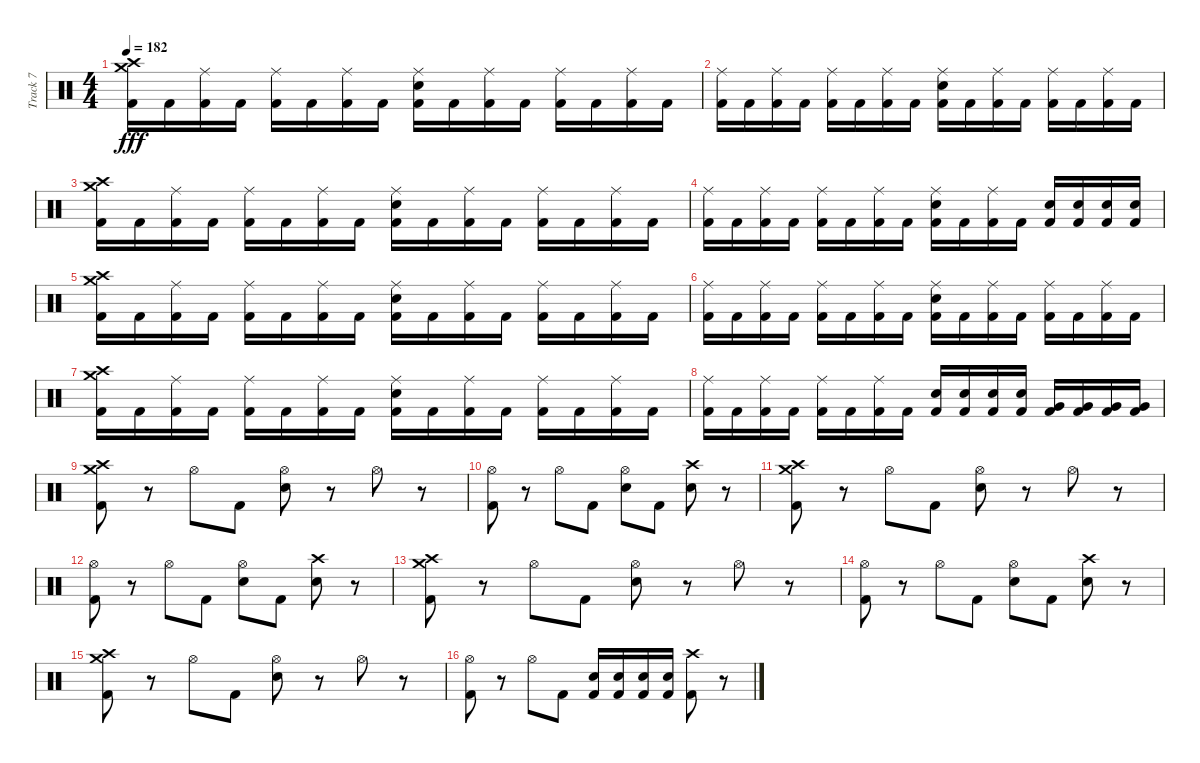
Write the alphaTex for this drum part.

\track ("Track 7" "Track 7") {instrument percussion}
\staff {score}
\articulation defaults
\ts (4 4)
\tempo 182
\clef neutral
\ks c
("Kick (hit) 2" "Crash medium (hit)" "Crash high (hit)").16{dy fff} "Kick (hit) 2".16 ("Kick (hit) 2" "Ride (middle)").16 "Kick (hit) 2".16 ("Kick (hit) 2" "Ride (middle)").16 "Kick (hit) 2".16 ("Kick (hit) 2" "Ride (middle)").16 "Kick (hit) 2".16 ("Kick (hit) 2" "Electric Snare (hit)" "Ride (middle)").16 "Kick (hit) 2".16 ("Kick (hit) 2" "Ride (middle)").16 "Kick (hit) 2".16 ("Kick (hit) 2" "Ride (middle)").16 "Kick (hit) 2".16 ("Kick (hit) 2" "Ride (middle)").16 "Kick (hit) 2".16 |
("Kick (hit) 2" "Ride (middle)").16 "Kick (hit) 2".16 ("Kick (hit) 2" "Ride (middle)").16 "Kick (hit) 2".16 ("Kick (hit) 2" "Ride (middle)").16 "Kick (hit) 2".16 ("Kick (hit) 2" "Ride (middle)").16 "Kick (hit) 2".16 ("Kick (hit) 2" "Ride (middle)" "Electric Snare (hit)").16 "Kick (hit) 2".16 ("Kick (hit) 2" "Ride (middle)").16 "Kick (hit) 2".16 ("Kick (hit) 2" "Ride (middle)").16 "Kick (hit) 2".16 ("Kick (hit) 2" "Ride (middle)").16 "Kick (hit) 2".16 |
("Kick (hit) 2" "Crash medium (hit)" "Crash high (hit)").16 "Kick (hit) 2".16 ("Kick (hit) 2" "Ride (middle)").16 "Kick (hit) 2".16 ("Kick (hit) 2" "Ride (middle)").16 "Kick (hit) 2".16 ("Kick (hit) 2" "Ride (middle)").16 "Kick (hit) 2".16 ("Kick (hit) 2" "Electric Snare (hit)" "Ride (middle)").16 "Kick (hit) 2".16 ("Kick (hit) 2" "Ride (middle)").16 "Kick (hit) 2".16 ("Kick (hit) 2" "Ride (middle)").16 "Kick (hit) 2".16 ("Kick (hit) 2" "Ride (middle)").16 "Kick (hit) 2".16 |
("Kick (hit) 2" "Ride (middle)").16 "Kick (hit) 2".16 ("Kick (hit) 2" "Ride (middle)").16 "Kick (hit) 2".16 ("Kick (hit) 2" "Ride (middle)").16 "Kick (hit) 2".16 ("Kick (hit) 2" "Ride (middle)").16 "Kick (hit) 2".16 ("Kick (hit) 2" "Ride (middle)" "Electric Snare (hit)").16 "Kick (hit) 2".16 ("Kick (hit) 2" "Ride (middle)").16 "Kick (hit) 2".16 ("Kick (hit) 2" "Electric Snare (hit)").16 ("Kick (hit) 2" "Electric Snare (hit)").16 ("Kick (hit) 2" "Electric Snare (hit)").16 ("Kick (hit) 2" "Electric Snare (hit)").16 |
("Kick (hit) 2" "Crash medium (hit)" "Crash high (hit)").16 "Kick (hit) 2".16 ("Kick (hit) 2" "Ride (middle)").16 "Kick (hit) 2".16 ("Kick (hit) 2" "Ride (middle)").16 "Kick (hit) 2".16 ("Kick (hit) 2" "Ride (middle)").16 "Kick (hit) 2".16 ("Kick (hit) 2" "Electric Snare (hit)" "Ride (middle)").16 "Kick (hit) 2".16 ("Kick (hit) 2" "Ride (middle)").16 "Kick (hit) 2".16 ("Kick (hit) 2" "Ride (middle)").16 "Kick (hit) 2".16 ("Kick (hit) 2" "Ride (middle)").16 "Kick (hit) 2".16 |
("Kick (hit) 2" "Ride (middle)").16 "Kick (hit) 2".16 ("Kick (hit) 2" "Ride (middle)").16 "Kick (hit) 2".16 ("Kick (hit) 2" "Ride (middle)").16 "Kick (hit) 2".16 ("Kick (hit) 2" "Ride (middle)").16 "Kick (hit) 2".16 ("Kick (hit) 2" "Ride (middle)" "Electric Snare (hit)").16 "Kick (hit) 2".16 ("Kick (hit) 2" "Ride (middle)").16 "Kick (hit) 2".16 ("Kick (hit) 2" "Ride (middle)").16 "Kick (hit) 2".16 ("Kick (hit) 2" "Ride (middle)").16 "Kick (hit) 2".16 |
("Kick (hit) 2" "Crash medium (hit)" "Crash high (hit)").16 "Kick (hit) 2".16 ("Kick (hit) 2" "Ride (middle)").16 "Kick (hit) 2".16 ("Kick (hit) 2" "Ride (middle)").16 "Kick (hit) 2".16 ("Kick (hit) 2" "Ride (middle)").16 "Kick (hit) 2".16 ("Kick (hit) 2" "Electric Snare (hit)" "Ride (middle)").16 "Kick (hit) 2".16 ("Kick (hit) 2" "Ride (middle)").16 "Kick (hit) 2".16 ("Kick (hit) 2" "Ride (middle)").16 "Kick (hit) 2".16 ("Kick (hit) 2" "Ride (middle)").16 "Kick (hit) 2".16 |
("Kick (hit) 2" "Ride (middle)").16 "Kick (hit) 2".16 ("Kick (hit) 2" "Ride (middle)").16 "Kick (hit) 2".16 ("Kick (hit) 2" "Ride (middle)").16 "Kick (hit) 2".16 ("Kick (hit) 2" "Ride (middle)").16 "Kick (hit) 2".16 ("Kick (hit) 2" "Electric Snare (hit)").16 ("Kick (hit) 2" "Electric Snare (hit)").16 ("Kick (hit) 2" "Electric Snare (hit)").16 ("Kick (hit) 2" "Electric Snare (hit)").16 ("Kick (hit) 2" "Very Low Tom (hit)").16 ("Kick (hit) 2" "Very Low Tom (hit)").16 ("Kick (hit) 2" "Very Low Tom (hit)").16 ("Kick (hit) 2" "Very Low Tom (hit)").16 |
("Kick (hit) 2" "Crash medium (hit)" "Crash high (hit)").8 r.8 "Hi-Hat (open)".8 "Kick (hit) 2".8 ("Electric Snare (hit)" "Hi-Hat (open)").8 r.8 "Hi-Hat (open)".8 r.8 |
("Kick (hit) 2" "Hi-Hat (open)").8 r.8 "Hi-Hat (open)".8 "Kick (hit) 2".8 ("Electric Snare (hit)" "Hi-Hat (open)").8 "Kick (hit) 2".8 ("Electric Snare (hit)" "Crash high (hit)").8 r.8 |
("Kick (hit) 2" "Crash medium (hit)" "Crash high (hit)").8 r.8 "Hi-Hat (open)".8 "Kick (hit) 2".8 ("Electric Snare (hit)" "Hi-Hat (open)").8 r.8 "Hi-Hat (open)".8 r.8 |
("Kick (hit) 2" "Hi-Hat (open)").8 r.8 "Hi-Hat (open)".8 "Kick (hit) 2".8 ("Electric Snare (hit)" "Hi-Hat (open)").8 "Kick (hit) 2".8 ("Electric Snare (hit)" "Crash high (hit)").8 r.8 |
("Kick (hit) 2" "Crash medium (hit)" "Crash high (hit)").8 r.8 "Hi-Hat (open)".8 "Kick (hit) 2".8 ("Electric Snare (hit)" "Hi-Hat (open)").8 r.8 "Hi-Hat (open)".8 r.8 |
("Kick (hit) 2" "Hi-Hat (open)").8 r.8 "Hi-Hat (open)".8 "Kick (hit) 2".8 ("Electric Snare (hit)" "Hi-Hat (open)").8 "Kick (hit) 2".8 ("Electric Snare (hit)" "Crash high (hit)").8 r.8 |
("Kick (hit) 2" "Crash medium (hit)" "Crash high (hit)").8 r.8 "Hi-Hat (open)".8 "Kick (hit) 2".8 ("Electric Snare (hit)" "Hi-Hat (open)").8 r.8 "Hi-Hat (open)".8 r.8 |
("Kick (hit) 2" "Hi-Hat (open)").8 r.8 "Hi-Hat (open)".8 "Kick (hit) 2".8 ("Kick (hit) 2" "Electric Snare (hit)").16 ("Kick (hit) 2" "Electric Snare (hit)").16 ("Kick (hit) 2" "Electric Snare (hit)").16 ("Kick (hit) 2" "Electric Snare (hit)").16 ("Kick (hit) 2" "Crash high (hit)").8 r.8
